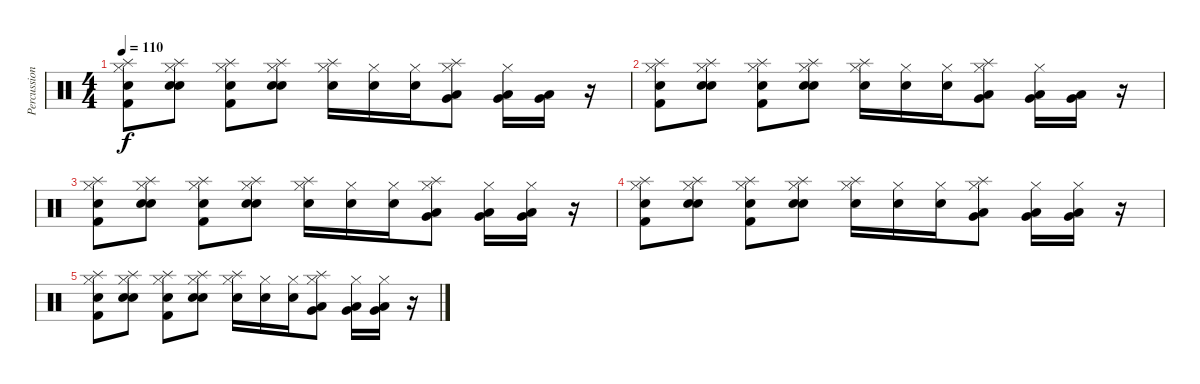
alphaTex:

\track ("Percussion" "Percussion") {instrument percussion}
\staff {score}
\articulation defaults
\ts (4 4)
\tempo 110
\clef neutral
\ks c
("Hi-Hat (closed)" "Splash (hit)" "Electric Snare (hit)" "Kick (hit) 2").8{dy f} ("Hi-Hat (closed)" "Splash (hit)" "Electric Snare (hit)" "Electric Snare (hit)").8 ("Hi-Hat (closed)" "Splash (hit)" "Electric Snare (hit)" "Kick (hit) 2").8 ("Hi-Hat (closed)" "Splash (hit)" "Electric Snare (hit)" "Electric Snare (hit)").8 ("Hi-Hat (closed)" "Splash (hit)" "Electric Snare (hit)").16 ("Hi-Hat (closed)" "Electric Snare (hit)").16 ("Hi-Hat (closed)" "Electric Snare (hit)").16 ("Hi-Hat (closed)" "Splash (hit)" "Very Low Tom (hit)" "Low Tom (hit)").8 ("Hi-Hat (closed)" "Very Low Tom (hit)" "Low Tom (hit)").16 ("Very Low Tom (hit)" "Low Tom (hit)").16 r.16 |
("Hi-Hat (closed)" "Splash (hit)" "Electric Snare (hit)" "Kick (hit) 2").8 ("Hi-Hat (closed)" "Splash (hit)" "Electric Snare (hit)" "Electric Snare (hit)").8 ("Hi-Hat (closed)" "Splash (hit)" "Electric Snare (hit)" "Kick (hit) 2").8 ("Hi-Hat (closed)" "Splash (hit)" "Electric Snare (hit)" "Electric Snare (hit)").8 ("Hi-Hat (closed)" "Splash (hit)" "Electric Snare (hit)").16 ("Hi-Hat (closed)" "Electric Snare (hit)").16 ("Hi-Hat (closed)" "Electric Snare (hit)").16 ("Hi-Hat (closed)" "Splash (hit)" "Very Low Tom (hit)" "Low Tom (hit)").8 ("Hi-Hat (closed)" "Very Low Tom (hit)" "Low Tom (hit)").16 ("Very Low Tom (hit)" "Low Tom (hit)").16 r.16 |
("Hi-Hat (closed)" "Splash (hit)" "Electric Snare (hit)" "Kick (hit) 2").8{volume 10} ("Hi-Hat (closed)" "Splash (hit)" "Electric Snare (hit)" "Electric Snare (hit)").8 ("Hi-Hat (closed)" "Splash (hit)" "Electric Snare (hit)" "Kick (hit) 2").8 ("Hi-Hat (closed)" "Splash (hit)" "Electric Snare (hit)" "Electric Snare (hit)").8 ("Hi-Hat (closed)" "Splash (hit)" "Electric Snare (hit)").16 ("Hi-Hat (closed)" "Electric Snare (hit)").16 ("Hi-Hat (closed)" "Electric Snare (hit)").16 ("Hi-Hat (closed)" "Splash (hit)" "Very Low Tom (hit)" "Low Tom (hit)").8 ("Hi-Hat (closed)" "Very Low Tom (hit)" "Low Tom (hit)").16 ("Hi-Hat (closed)" "Very Low Tom (hit)" "Low Tom (hit)").16 r.16 |
("Hi-Hat (closed)" "Splash (hit)" "Electric Snare (hit)" "Kick (hit) 2").8{volume 5} ("Hi-Hat (closed)" "Splash (hit)" "Electric Snare (hit)" "Electric Snare (hit)").8 ("Hi-Hat (closed)" "Splash (hit)" "Electric Snare (hit)" "Kick (hit) 2").8 ("Hi-Hat (closed)" "Splash (hit)" "Electric Snare (hit)" "Electric Snare (hit)").8 ("Hi-Hat (closed)" "Splash (hit)" "Electric Snare (hit)").16 ("Hi-Hat (closed)" "Electric Snare (hit)").16 ("Hi-Hat (closed)" "Electric Snare (hit)").16 ("Hi-Hat (closed)" "Splash (hit)" "Very Low Tom (hit)" "Low Tom (hit)").8 ("Hi-Hat (closed)" "Very Low Tom (hit)" "Low Tom (hit)").16 ("Hi-Hat (closed)" "Very Low Tom (hit)" "Low Tom (hit)").16 r.16 |
("Hi-Hat (closed)" "Splash (hit)" "Electric Snare (hit)" "Kick (hit) 2").8{volume 0} ("Hi-Hat (closed)" "Splash (hit)" "Electric Snare (hit)" "Electric Snare (hit)").8 ("Hi-Hat (closed)" "Splash (hit)" "Electric Snare (hit)" "Kick (hit) 2").8 ("Hi-Hat (closed)" "Splash (hit)" "Electric Snare (hit)" "Electric Snare (hit)").8 ("Hi-Hat (closed)" "Splash (hit)" "Electric Snare (hit)").16 ("Hi-Hat (closed)" "Electric Snare (hit)").16 ("Hi-Hat (closed)" "Electric Snare (hit)").16 ("Hi-Hat (closed)" "Splash (hit)" "Very Low Tom (hit)" "Low Tom (hit)").8 ("Hi-Hat (closed)" "Very Low Tom (hit)" "Low Tom (hit)").16 ("Hi-Hat (closed)" "Very Low Tom (hit)" "Low Tom (hit)").16 r.16
